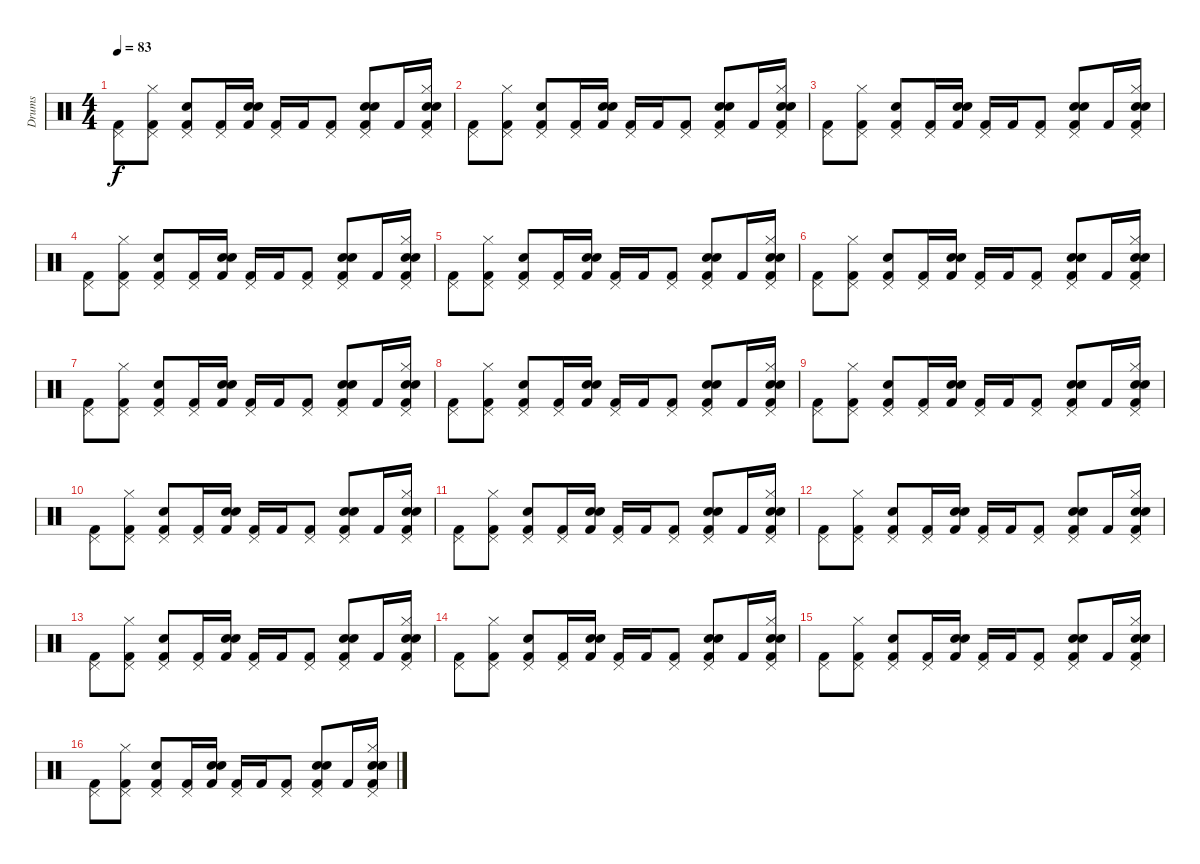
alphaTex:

\track ("Drums" "Drums") {instrument percussion}
\staff {score}
\articulation defaults
\ts (4 4)
\tempo 83
\clef neutral
\ks c
("Kick (hit) 2" "Pedal Hi-Hat (hit)").8{dy f} ("Kick (hit) 2" "Hi-Hat (closed)" "Pedal Hi-Hat (hit)").8 ("Kick (hit) 2" "Electric Snare (hit)" "Pedal Hi-Hat (hit)").8 ("Kick (hit) 2" "Pedal Hi-Hat (hit)").16 ("Kick (hit) 2" "Electric Snare (hit)" "Snare (hit) 2").16 ("Kick (hit) 2" "Pedal Hi-Hat (hit)").16 "Kick (hit) 2".16 ("Kick (hit) 2" "Pedal Hi-Hat (hit)").8 ("Kick (hit) 2" "Electric Snare (hit)" "Snare (hit) 2" "Pedal Hi-Hat (hit)").8 "Kick (hit) 2".16 ("Kick (hit) 2" "Hi-Hat (closed)" "Electric Snare (hit)" "Snare (hit) 2" "Pedal Hi-Hat (hit)").16 |
("Kick (hit) 2" "Pedal Hi-Hat (hit)").8 ("Kick (hit) 2" "Hi-Hat (closed)" "Pedal Hi-Hat (hit)").8 ("Kick (hit) 2" "Electric Snare (hit)" "Pedal Hi-Hat (hit)").8 ("Kick (hit) 2" "Pedal Hi-Hat (hit)").16 ("Kick (hit) 2" "Electric Snare (hit)" "Snare (hit) 2").16 ("Kick (hit) 2" "Pedal Hi-Hat (hit)").16 "Kick (hit) 2".16 ("Kick (hit) 2" "Pedal Hi-Hat (hit)").8 ("Kick (hit) 2" "Electric Snare (hit)" "Snare (hit) 2" "Pedal Hi-Hat (hit)").8 "Kick (hit) 2".16 ("Kick (hit) 2" "Hi-Hat (closed)" "Electric Snare (hit)" "Snare (hit) 2" "Pedal Hi-Hat (hit)").16 |
("Kick (hit) 2" "Pedal Hi-Hat (hit)").8 ("Kick (hit) 2" "Hi-Hat (closed)" "Pedal Hi-Hat (hit)").8 ("Kick (hit) 2" "Electric Snare (hit)" "Pedal Hi-Hat (hit)").8 ("Kick (hit) 2" "Pedal Hi-Hat (hit)").16 ("Kick (hit) 2" "Electric Snare (hit)" "Snare (hit) 2").16 ("Kick (hit) 2" "Pedal Hi-Hat (hit)").16 "Kick (hit) 2".16 ("Kick (hit) 2" "Pedal Hi-Hat (hit)").8 ("Kick (hit) 2" "Electric Snare (hit)" "Snare (hit) 2" "Pedal Hi-Hat (hit)").8 "Kick (hit) 2".16 ("Kick (hit) 2" "Hi-Hat (closed)" "Electric Snare (hit)" "Snare (hit) 2" "Pedal Hi-Hat (hit)").16 |
("Kick (hit) 2" "Pedal Hi-Hat (hit)").8 ("Kick (hit) 2" "Hi-Hat (closed)" "Pedal Hi-Hat (hit)").8 ("Kick (hit) 2" "Electric Snare (hit)" "Pedal Hi-Hat (hit)").8 ("Kick (hit) 2" "Pedal Hi-Hat (hit)").16 ("Kick (hit) 2" "Electric Snare (hit)" "Snare (hit) 2").16 ("Kick (hit) 2" "Pedal Hi-Hat (hit)").16 "Kick (hit) 2".16 ("Kick (hit) 2" "Pedal Hi-Hat (hit)").8 ("Kick (hit) 2" "Electric Snare (hit)" "Snare (hit) 2" "Pedal Hi-Hat (hit)").8 "Kick (hit) 2".16 ("Kick (hit) 2" "Hi-Hat (closed)" "Electric Snare (hit)" "Snare (hit) 2" "Pedal Hi-Hat (hit)").16 |
("Kick (hit) 2" "Pedal Hi-Hat (hit)").8 ("Kick (hit) 2" "Hi-Hat (closed)" "Pedal Hi-Hat (hit)").8 ("Kick (hit) 2" "Electric Snare (hit)" "Pedal Hi-Hat (hit)").8 ("Kick (hit) 2" "Pedal Hi-Hat (hit)").16 ("Kick (hit) 2" "Electric Snare (hit)" "Snare (hit) 2").16 ("Kick (hit) 2" "Pedal Hi-Hat (hit)").16 "Kick (hit) 2".16 ("Kick (hit) 2" "Pedal Hi-Hat (hit)").8 ("Kick (hit) 2" "Electric Snare (hit)" "Snare (hit) 2" "Pedal Hi-Hat (hit)").8 "Kick (hit) 2".16 ("Kick (hit) 2" "Hi-Hat (closed)" "Electric Snare (hit)" "Snare (hit) 2" "Pedal Hi-Hat (hit)").16 |
("Kick (hit) 2" "Pedal Hi-Hat (hit)").8 ("Kick (hit) 2" "Hi-Hat (closed)" "Pedal Hi-Hat (hit)").8 ("Kick (hit) 2" "Electric Snare (hit)" "Pedal Hi-Hat (hit)").8 ("Kick (hit) 2" "Pedal Hi-Hat (hit)").16 ("Kick (hit) 2" "Electric Snare (hit)" "Snare (hit) 2").16 ("Kick (hit) 2" "Pedal Hi-Hat (hit)").16 "Kick (hit) 2".16 ("Kick (hit) 2" "Pedal Hi-Hat (hit)").8 ("Kick (hit) 2" "Electric Snare (hit)" "Snare (hit) 2" "Pedal Hi-Hat (hit)").8 "Kick (hit) 2".16 ("Kick (hit) 2" "Hi-Hat (closed)" "Electric Snare (hit)" "Snare (hit) 2" "Pedal Hi-Hat (hit)").16 |
("Kick (hit) 2" "Pedal Hi-Hat (hit)").8 ("Kick (hit) 2" "Hi-Hat (closed)" "Pedal Hi-Hat (hit)").8 ("Kick (hit) 2" "Electric Snare (hit)" "Pedal Hi-Hat (hit)").8 ("Kick (hit) 2" "Pedal Hi-Hat (hit)").16 ("Kick (hit) 2" "Electric Snare (hit)" "Snare (hit) 2").16 ("Kick (hit) 2" "Pedal Hi-Hat (hit)").16 "Kick (hit) 2".16 ("Kick (hit) 2" "Pedal Hi-Hat (hit)").8 ("Kick (hit) 2" "Electric Snare (hit)" "Snare (hit) 2" "Pedal Hi-Hat (hit)").8 "Kick (hit) 2".16 ("Kick (hit) 2" "Hi-Hat (closed)" "Electric Snare (hit)" "Snare (hit) 2" "Pedal Hi-Hat (hit)").16 |
("Kick (hit) 2" "Pedal Hi-Hat (hit)").8 ("Kick (hit) 2" "Hi-Hat (closed)" "Pedal Hi-Hat (hit)").8 ("Kick (hit) 2" "Electric Snare (hit)" "Pedal Hi-Hat (hit)").8 ("Kick (hit) 2" "Pedal Hi-Hat (hit)").16 ("Kick (hit) 2" "Electric Snare (hit)" "Snare (hit) 2").16 ("Kick (hit) 2" "Pedal Hi-Hat (hit)").16 "Kick (hit) 2".16 ("Kick (hit) 2" "Pedal Hi-Hat (hit)").8 ("Kick (hit) 2" "Electric Snare (hit)" "Snare (hit) 2" "Pedal Hi-Hat (hit)").8 "Kick (hit) 2".16 ("Kick (hit) 2" "Hi-Hat (closed)" "Electric Snare (hit)" "Snare (hit) 2" "Pedal Hi-Hat (hit)").16 |
("Kick (hit) 2" "Pedal Hi-Hat (hit)").8 ("Kick (hit) 2" "Hi-Hat (closed)" "Pedal Hi-Hat (hit)").8 ("Kick (hit) 2" "Electric Snare (hit)" "Pedal Hi-Hat (hit)").8 ("Kick (hit) 2" "Pedal Hi-Hat (hit)").16 ("Kick (hit) 2" "Electric Snare (hit)" "Snare (hit) 2").16 ("Kick (hit) 2" "Pedal Hi-Hat (hit)").16 "Kick (hit) 2".16 ("Kick (hit) 2" "Pedal Hi-Hat (hit)").8 ("Kick (hit) 2" "Electric Snare (hit)" "Snare (hit) 2" "Pedal Hi-Hat (hit)").8 "Kick (hit) 2".16 ("Kick (hit) 2" "Hi-Hat (closed)" "Electric Snare (hit)" "Snare (hit) 2" "Pedal Hi-Hat (hit)").16 |
("Kick (hit) 2" "Pedal Hi-Hat (hit)").8 ("Kick (hit) 2" "Hi-Hat (closed)" "Pedal Hi-Hat (hit)").8 ("Kick (hit) 2" "Electric Snare (hit)" "Pedal Hi-Hat (hit)").8 ("Kick (hit) 2" "Pedal Hi-Hat (hit)").16 ("Kick (hit) 2" "Electric Snare (hit)" "Snare (hit) 2").16 ("Kick (hit) 2" "Pedal Hi-Hat (hit)").16 "Kick (hit) 2".16 ("Kick (hit) 2" "Pedal Hi-Hat (hit)").8 ("Kick (hit) 2" "Electric Snare (hit)" "Snare (hit) 2" "Pedal Hi-Hat (hit)").8 "Kick (hit) 2".16 ("Kick (hit) 2" "Hi-Hat (closed)" "Electric Snare (hit)" "Snare (hit) 2" "Pedal Hi-Hat (hit)").16 |
("Kick (hit) 2" "Pedal Hi-Hat (hit)").8 ("Kick (hit) 2" "Hi-Hat (closed)" "Pedal Hi-Hat (hit)").8 ("Kick (hit) 2" "Electric Snare (hit)" "Pedal Hi-Hat (hit)").8 ("Kick (hit) 2" "Pedal Hi-Hat (hit)").16 ("Kick (hit) 2" "Electric Snare (hit)" "Snare (hit) 2").16 ("Kick (hit) 2" "Pedal Hi-Hat (hit)").16 "Kick (hit) 2".16 ("Kick (hit) 2" "Pedal Hi-Hat (hit)").8 ("Kick (hit) 2" "Electric Snare (hit)" "Snare (hit) 2" "Pedal Hi-Hat (hit)").8 "Kick (hit) 2".16 ("Kick (hit) 2" "Hi-Hat (closed)" "Electric Snare (hit)" "Snare (hit) 2" "Pedal Hi-Hat (hit)").16 |
("Kick (hit) 2" "Pedal Hi-Hat (hit)").8 ("Kick (hit) 2" "Hi-Hat (closed)" "Pedal Hi-Hat (hit)").8 ("Kick (hit) 2" "Electric Snare (hit)" "Pedal Hi-Hat (hit)").8 ("Kick (hit) 2" "Pedal Hi-Hat (hit)").16 ("Kick (hit) 2" "Electric Snare (hit)" "Snare (hit) 2").16 ("Kick (hit) 2" "Pedal Hi-Hat (hit)").16 "Kick (hit) 2".16 ("Kick (hit) 2" "Pedal Hi-Hat (hit)").8 ("Kick (hit) 2" "Electric Snare (hit)" "Snare (hit) 2" "Pedal Hi-Hat (hit)").8 "Kick (hit) 2".16 ("Kick (hit) 2" "Hi-Hat (closed)" "Electric Snare (hit)" "Snare (hit) 2" "Pedal Hi-Hat (hit)").16 |
("Kick (hit) 2" "Pedal Hi-Hat (hit)").8 ("Kick (hit) 2" "Hi-Hat (closed)" "Pedal Hi-Hat (hit)").8 ("Kick (hit) 2" "Electric Snare (hit)" "Pedal Hi-Hat (hit)").8 ("Kick (hit) 2" "Pedal Hi-Hat (hit)").16 ("Kick (hit) 2" "Electric Snare (hit)" "Snare (hit) 2").16 ("Kick (hit) 2" "Pedal Hi-Hat (hit)").16 "Kick (hit) 2".16 ("Kick (hit) 2" "Pedal Hi-Hat (hit)").8 ("Kick (hit) 2" "Electric Snare (hit)" "Snare (hit) 2" "Pedal Hi-Hat (hit)").8 "Kick (hit) 2".16 ("Kick (hit) 2" "Hi-Hat (closed)" "Electric Snare (hit)" "Snare (hit) 2" "Pedal Hi-Hat (hit)").16 |
("Kick (hit) 2" "Pedal Hi-Hat (hit)").8 ("Kick (hit) 2" "Hi-Hat (closed)" "Pedal Hi-Hat (hit)").8 ("Kick (hit) 2" "Electric Snare (hit)" "Pedal Hi-Hat (hit)").8 ("Kick (hit) 2" "Pedal Hi-Hat (hit)").16 ("Kick (hit) 2" "Electric Snare (hit)" "Snare (hit) 2").16 ("Kick (hit) 2" "Pedal Hi-Hat (hit)").16 "Kick (hit) 2".16 ("Kick (hit) 2" "Pedal Hi-Hat (hit)").8 ("Kick (hit) 2" "Electric Snare (hit)" "Snare (hit) 2" "Pedal Hi-Hat (hit)").8 "Kick (hit) 2".16 ("Kick (hit) 2" "Hi-Hat (closed)" "Electric Snare (hit)" "Snare (hit) 2" "Pedal Hi-Hat (hit)").16 |
("Kick (hit) 2" "Pedal Hi-Hat (hit)").8 ("Kick (hit) 2" "Hi-Hat (closed)" "Pedal Hi-Hat (hit)").8 ("Kick (hit) 2" "Electric Snare (hit)" "Pedal Hi-Hat (hit)").8 ("Kick (hit) 2" "Pedal Hi-Hat (hit)").16 ("Kick (hit) 2" "Electric Snare (hit)" "Snare (hit) 2").16 ("Kick (hit) 2" "Pedal Hi-Hat (hit)").16 "Kick (hit) 2".16 ("Kick (hit) 2" "Pedal Hi-Hat (hit)").8 ("Kick (hit) 2" "Electric Snare (hit)" "Snare (hit) 2" "Pedal Hi-Hat (hit)").8 "Kick (hit) 2".16 ("Kick (hit) 2" "Hi-Hat (closed)" "Electric Snare (hit)" "Snare (hit) 2" "Pedal Hi-Hat (hit)").16 |
("Kick (hit) 2" "Pedal Hi-Hat (hit)").8 ("Kick (hit) 2" "Hi-Hat (closed)" "Pedal Hi-Hat (hit)").8 ("Kick (hit) 2" "Electric Snare (hit)" "Pedal Hi-Hat (hit)").8 ("Kick (hit) 2" "Pedal Hi-Hat (hit)").16 ("Kick (hit) 2" "Electric Snare (hit)" "Snare (hit) 2").16 ("Kick (hit) 2" "Pedal Hi-Hat (hit)").16 "Kick (hit) 2".16 ("Kick (hit) 2" "Pedal Hi-Hat (hit)").8 ("Kick (hit) 2" "Electric Snare (hit)" "Snare (hit) 2" "Pedal Hi-Hat (hit)").8 "Kick (hit) 2".16 ("Kick (hit) 2" "Hi-Hat (closed)" "Electric Snare (hit)" "Snare (hit) 2" "Pedal Hi-Hat (hit)").16
